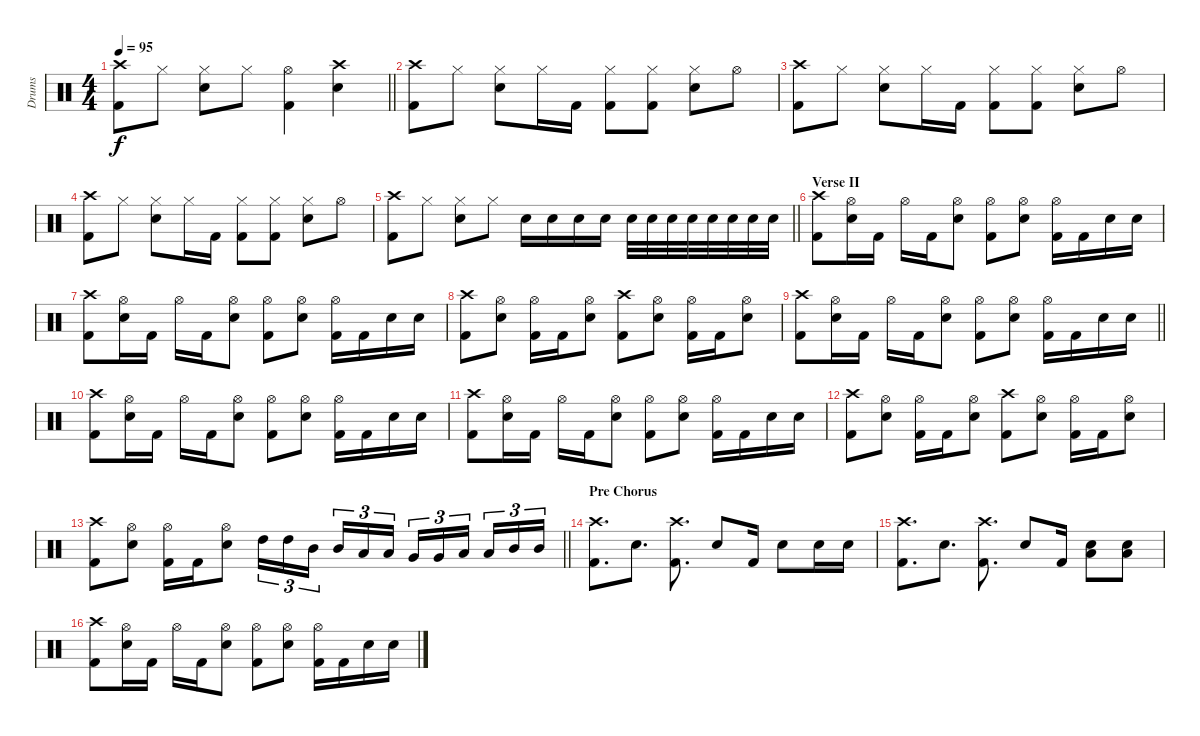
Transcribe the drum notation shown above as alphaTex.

\track ("Drums" "Drums") {instrument percussion}
\staff {score}
\articulation defaults
\ts (4 4)
\tempo 95
\clef neutral
\barLineRight lightlight
\ks c
("Kick (hit) 2" "Crash high (hit)").8{dy f} "Hi-Hat (closed)".8 ("Hi-Hat (closed)" "Snare (hit) 2").8 "Hi-Hat (closed)".8 ("Hi-Hat (open)" "Kick (hit) 2").4 ("Crash high (hit)" "Snare (hit) 2").4 |
\section ("" "")
("Crash high (hit)" "Kick (hit) 2").8 "Hi-Hat (closed)".8 ("Hi-Hat (closed)" "Snare (hit) 2").8 "Hi-Hat (closed)".16 "Kick (hit) 2".16 ("Hi-Hat (closed)" "Kick (hit) 2").8 ("Hi-Hat (closed)" "Kick (hit) 2").8 ("Hi-Hat (closed)" "Snare (hit) 2").8 "Hi-Hat (open)".8 |
("Crash high (hit)" "Kick (hit) 2").8 "Hi-Hat (closed)".8 ("Hi-Hat (closed)" "Snare (hit) 2").8 "Hi-Hat (closed)".16 "Kick (hit) 2".16 ("Hi-Hat (closed)" "Kick (hit) 2").8 ("Hi-Hat (closed)" "Kick (hit) 2").8 ("Hi-Hat (closed)" "Snare (hit) 2").8 "Hi-Hat (open)".8 |
("Crash high (hit)" "Kick (hit) 2").8 "Hi-Hat (closed)".8 ("Hi-Hat (closed)" "Snare (hit) 2").8 "Hi-Hat (closed)".16 "Kick (hit) 2".16 ("Hi-Hat (closed)" "Kick (hit) 2").8 ("Hi-Hat (closed)" "Kick (hit) 2").8 ("Hi-Hat (closed)" "Snare (hit) 2").8 "Hi-Hat (open)".8 |
\barLineRight lightlight
("Crash high (hit)" "Kick (hit) 2").8 "Hi-Hat (closed)".8 ("Hi-Hat (closed)" "Snare (hit) 2").8 "Hi-Hat (closed)".8 "Snare (hit) 2".16 "Snare (hit) 2".16 "Snare (hit) 2".16 "Snare (hit) 2".16 "Snare (hit) 2".32 "Snare (hit) 2".32 "Snare (hit) 2".32 "Snare (hit) 2".32 "Snare (hit) 2".32 "Snare (hit) 2".32 "Snare (hit) 2".32 "Snare (hit) 2".32 |
\section ("" "Verse II")
("Crash high (hit)" "Kick (hit) 2").8 ("Hi-Hat (open)" "Snare (hit) 2").16 "Kick (hit) 2".16 "Hi-Hat (open)".16 "Kick (hit) 2".16 ("Hi-Hat (open)" "Snare (hit) 2").8 ("Hi-Hat (open)" "Kick (hit) 2").8 ("Hi-Hat (open)" "Snare (hit) 2").8 ("Hi-Hat (open)" "Kick (hit) 2").16 "Kick (hit) 2".16 "Snare (hit) 2".16 "Snare (hit) 2".16 |
("Crash high (hit)" "Kick (hit) 2").8 ("Hi-Hat (open)" "Snare (hit) 2").16 "Kick (hit) 2".16 "Hi-Hat (open)".16 "Kick (hit) 2".16 ("Hi-Hat (open)" "Snare (hit) 2").8 ("Hi-Hat (open)" "Kick (hit) 2").8 ("Hi-Hat (open)" "Snare (hit) 2").8 ("Hi-Hat (open)" "Kick (hit) 2").16 "Kick (hit) 2".16 "Snare (hit) 2".16 "Snare (hit) 2".16 |
("Crash high (hit)" "Kick (hit) 2").8 ("Hi-Hat (open)" "Snare (hit) 2").8 ("Hi-Hat (open)" "Kick (hit) 2").16 "Kick (hit) 2".16 ("Hi-Hat (open)" "Snare (hit) 2").8 ("Crash high (hit)" "Kick (hit) 2").8 ("Hi-Hat (open)" "Snare (hit) 2").8 ("Hi-Hat (open)" "Kick (hit) 2").16 "Kick (hit) 2".16 ("Hi-Hat (open)" "Snare (hit) 2").8 |
\barLineRight lightlight
("Crash high (hit)" "Kick (hit) 2").8 ("Hi-Hat (open)" "Snare (hit) 2").16 "Kick (hit) 2".16 "Hi-Hat (open)".16 "Kick (hit) 2".16 ("Hi-Hat (open)" "Snare (hit) 2").8 ("Hi-Hat (open)" "Kick (hit) 2").8 ("Hi-Hat (open)" "Snare (hit) 2").8 ("Hi-Hat (open)" "Kick (hit) 2").16 "Kick (hit) 2".16 "Snare (hit) 2".16 "Snare (hit) 2".16 |
("Crash high (hit)" "Kick (hit) 2").8 ("Hi-Hat (open)" "Snare (hit) 2").16 "Kick (hit) 2".16 "Hi-Hat (open)".16 "Kick (hit) 2".16 ("Hi-Hat (open)" "Snare (hit) 2").8 ("Hi-Hat (open)" "Kick (hit) 2").8 ("Hi-Hat (open)" "Snare (hit) 2").8 ("Hi-Hat (open)" "Kick (hit) 2").16 "Kick (hit) 2".16 "Snare (hit) 2".16 "Snare (hit) 2".16 |
("Crash high (hit)" "Kick (hit) 2").8 ("Hi-Hat (open)" "Snare (hit) 2").16 "Kick (hit) 2".16 "Hi-Hat (open)".16 "Kick (hit) 2".16 ("Hi-Hat (open)" "Snare (hit) 2").8 ("Hi-Hat (open)" "Kick (hit) 2").8 ("Hi-Hat (open)" "Snare (hit) 2").8 ("Hi-Hat (open)" "Kick (hit) 2").16 "Kick (hit) 2".16 "Snare (hit) 2".16 "Snare (hit) 2".16 |
("Crash high (hit)" "Kick (hit) 2").8 ("Hi-Hat (open)" "Snare (hit) 2").8 ("Hi-Hat (open)" "Kick (hit) 2").16 "Kick (hit) 2".16 ("Hi-Hat (open)" "Snare (hit) 2").8 ("Crash high (hit)" "Kick (hit) 2").8 ("Hi-Hat (open)" "Snare (hit) 2").8 ("Hi-Hat (open)" "Kick (hit) 2").16 "Kick (hit) 2".16 ("Hi-Hat (open)" "Snare (hit) 2").8 |
\barLineRight lightlight
("Crash high (hit)" "Kick (hit) 2").8 ("Hi-Hat (open)" "Snare (hit) 2").8 ("Hi-Hat (open)" "Kick (hit) 2").16 "Kick (hit) 2".16 ("Hi-Hat (open)" "Snare (hit) 2").8 "High Tom (hit)".16{tu (3 2)} "High Tom (hit)".16{tu (3 2)} "Mid Tom (hit)".16{tu (3 2) beam splitsecondary} "Mid Tom (hit)".16{tu (3 2)} "Low Tom (hit)".16{tu (3 2)} "Low Tom (hit)".16{tu (3 2)} "Very Low Tom (hit)".16{tu (3 2)} "Very Low Tom (hit)".16{tu (3 2)} "Low Tom (hit)".16{tu (3 2) beam splitsecondary} "Low Tom (hit)".16{tu (3 2)} "Mid Tom (hit)".16{tu (3 2)} "Mid Tom (hit)".16{tu (3 2)} |
\section ("" "Pre Chorus")
("Kick (hit) 2" "Crash high (hit)").8{d} "Snare (hit) 2".8{d} ("Kick (hit) 2" "Crash high (hit)").8{d} "Snare (hit) 2".8 "Kick (hit) 2".16 "Snare (hit) 2".8 "Snare (hit) 2".16 "Snare (hit) 2".16 |
("Kick (hit) 2" "Crash high (hit)").8{d} "Snare (hit) 2".8{d} ("Kick (hit) 2" "Crash high (hit)").8{d} "Snare (hit) 2".8 "Kick (hit) 2".16 ("Snare (hit) 2" "Low Tom (hit)").8 ("Snare (hit) 2" "Low Tom (hit)").8 |
("Crash high (hit)" "Kick (hit) 2").8 ("Hi-Hat (open)" "Snare (hit) 2").16 "Kick (hit) 2".16 "Hi-Hat (open)".16 "Kick (hit) 2".16 ("Hi-Hat (open)" "Snare (hit) 2").8 ("Hi-Hat (open)" "Kick (hit) 2").8 ("Hi-Hat (open)" "Snare (hit) 2").8 ("Hi-Hat (open)" "Kick (hit) 2").16 "Kick (hit) 2".16 "Snare (hit) 2".16 "Snare (hit) 2".16
